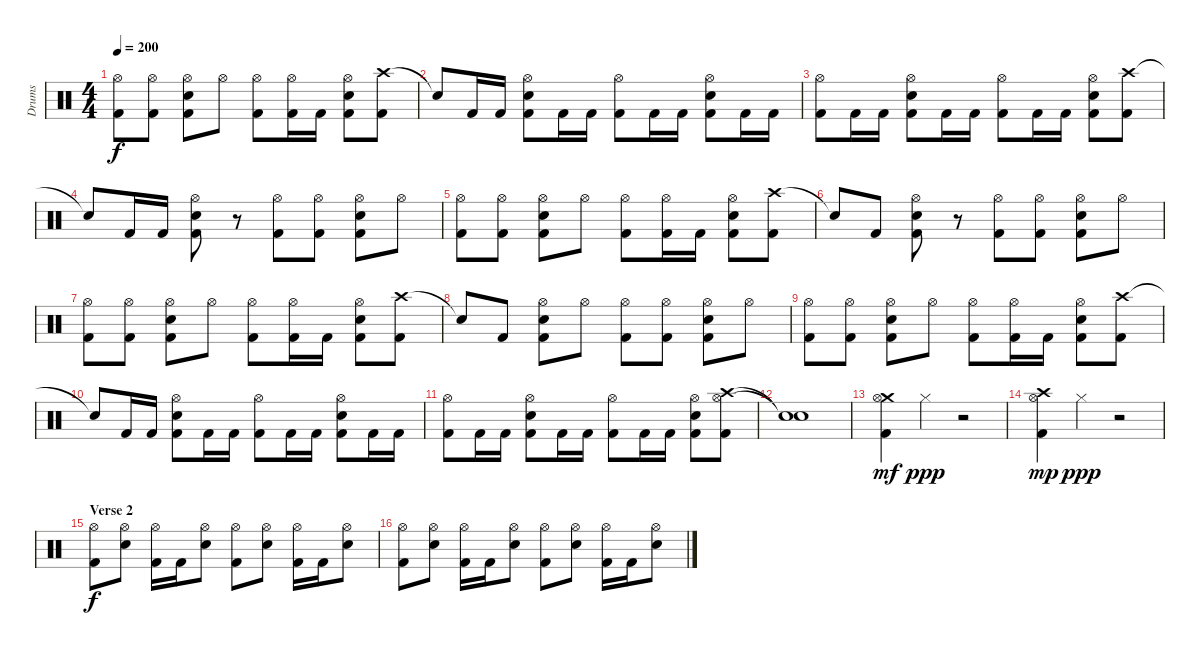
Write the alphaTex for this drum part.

\track ("Drums" "Drums") {instrument percussion}
\staff {score}
\articulation defaults
\ts (4 4)
\tempo 200
\clef neutral
\ks c
("Hi-Hat (open)" "Kick (hit) 2").8{dy f} ("Hi-Hat (open)" "Kick (hit) 2").8 ("Hi-Hat (open)" "Snare (hit) 2" "Kick (hit) 2").8 "Hi-Hat (open)".8 ("Hi-Hat (open)" "Kick (hit) 2").8 ("Hi-Hat (open)" "Kick (hit) 2").16 "Kick (hit) 2".16 ("Hi-Hat (open)" "Snare (hit) 2" "Kick (hit) 2").8 ("Crash high (hit)" "Kick (hit) 2").8 |
"Snare (hit)"{t}.8 "Kick (hit) 2".16 "Kick (hit) 2".16 ("Hi-Hat (open)" "Snare (hit) 2" "Kick (hit) 2").8 "Kick (hit) 2".16 "Kick (hit) 2".16 ("Hi-Hat (open)" "Kick (hit) 2").8 "Kick (hit) 2".16 "Kick (hit) 2".16 ("Hi-Hat (open)" "Snare (hit) 2" "Kick (hit) 2").8 "Kick (hit) 2".16 "Kick (hit) 2".16 |
("Hi-Hat (open)" "Kick (hit) 2").8 "Kick (hit) 2".16 "Kick (hit) 2".16 ("Hi-Hat (open)" "Snare (hit) 2" "Kick (hit) 2").8 "Kick (hit) 2".16 "Kick (hit) 2".16 ("Hi-Hat (open)" "Kick (hit) 2").8 "Kick (hit) 2".16 "Kick (hit) 2".16 ("Hi-Hat (open)" "Snare (hit) 2" "Kick (hit) 2").8 ("Crash high (hit)" "Kick (hit) 2").8 |
"Snare (hit)"{t}.8 "Kick (hit) 2".16 "Kick (hit) 2".16 ("Hi-Hat (open)" "Snare (hit) 2" "Kick (hit) 2").8 r.8 ("Hi-Hat (open)" "Kick (hit) 2").8 ("Hi-Hat (open)" "Kick (hit) 2").8 ("Hi-Hat (open)" "Snare (hit) 2" "Kick (hit) 2").8 "Hi-Hat (open)".8 |
("Hi-Hat (open)" "Kick (hit) 2").8 ("Hi-Hat (open)" "Kick (hit) 2").8 ("Hi-Hat (open)" "Snare (hit) 2" "Kick (hit) 2").8 "Hi-Hat (open)".8 ("Hi-Hat (open)" "Kick (hit) 2").8 ("Hi-Hat (open)" "Kick (hit) 2").16 "Kick (hit) 2".16 ("Hi-Hat (open)" "Snare (hit) 2" "Kick (hit) 2").8 ("Crash high (hit)" "Kick (hit) 2").8 |
"Snare (hit)"{t}.8 "Kick (hit) 2".8 ("Hi-Hat (open)" "Snare (hit) 2" "Kick (hit) 2").8 r.8 ("Hi-Hat (open)" "Kick (hit) 2").8 ("Hi-Hat (open)" "Kick (hit) 2").8 ("Hi-Hat (open)" "Snare (hit) 2" "Kick (hit) 2").8 "Hi-Hat (open)".8 |
("Hi-Hat (open)" "Kick (hit) 2").8 ("Hi-Hat (open)" "Kick (hit) 2").8 ("Hi-Hat (open)" "Snare (hit) 2" "Kick (hit) 2").8 "Hi-Hat (open)".8 ("Hi-Hat (open)" "Kick (hit) 2").8 ("Hi-Hat (open)" "Kick (hit) 2").16 "Kick (hit) 2".16 ("Hi-Hat (open)" "Snare (hit) 2" "Kick (hit) 2").8 ("Crash high (hit)" "Kick (hit) 2").8 |
"Snare (hit)"{t}.8 "Kick (hit) 2".8 ("Hi-Hat (open)" "Snare (hit) 2" "Kick (hit) 2").8 "Hi-Hat (open)".8 ("Hi-Hat (open)" "Kick (hit) 2").8 ("Hi-Hat (open)" "Kick (hit) 2").8 ("Hi-Hat (open)" "Snare (hit) 2" "Kick (hit) 2").8 "Hi-Hat (open)".8 |
("Hi-Hat (open)" "Kick (hit) 2").8 ("Hi-Hat (open)" "Kick (hit) 2").8 ("Hi-Hat (open)" "Snare (hit) 2" "Kick (hit) 2").8 "Hi-Hat (open)".8 ("Hi-Hat (open)" "Kick (hit) 2").8 ("Hi-Hat (open)" "Kick (hit) 2").16 "Kick (hit) 2".16 ("Hi-Hat (open)" "Snare (hit) 2" "Kick (hit) 2").8 ("Crash high (hit)" "Kick (hit) 2").8 |
"Snare (hit)"{t}.8 "Kick (hit) 2".16 "Kick (hit) 2".16 ("Hi-Hat (open)" "Snare (hit) 2" "Kick (hit) 2").8 "Kick (hit) 2".16 "Kick (hit) 2".16 ("Hi-Hat (open)" "Kick (hit) 2").8 "Kick (hit) 2".16 "Kick (hit) 2".16 ("Hi-Hat (open)" "Snare (hit) 2" "Kick (hit) 2").8 "Kick (hit) 2".16 "Kick (hit) 2".16 |
("Hi-Hat (open)" "Kick (hit) 2").8 "Kick (hit) 2".16 "Kick (hit) 2".16 ("Hi-Hat (open)" "Snare (hit) 2" "Kick (hit) 2").8 "Kick (hit) 2".16 "Kick (hit) 2".16 ("Hi-Hat (open)" "Kick (hit) 2").8 "Kick (hit) 2".16 "Kick (hit) 2".16 ("Hi-Hat (open)" "Snare (hit) 2" "Kick (hit) 2").8 ("Crash high (hit)" "Hi-Hat (open)" "Kick (hit) 2").8 |
("Snare (hit)"{t} "Snare (hit)"{t}).1 |
("Crash medium (hit)" "Hi-Hat (open)" "Kick (hit) 2").4{dy mf} "Hi-Hat (closed)".4{dy ppp} r.2 |
("Crash high (hit)" "Hi-Hat (open)" "Kick (hit) 2").4{dy mp} "Hi-Hat (closed)".4{dy ppp} r.2 |
\section ("" "Verse 2")
("Hi-Hat (open)" "Kick (hit) 2").8{dy f} ("Hi-Hat (open)" "Snare (hit) 2").8 ("Hi-Hat (open)" "Kick (hit) 2").16 "Kick (hit) 2".16 ("Hi-Hat (open)" "Snare (hit) 2").8 ("Hi-Hat (open)" "Kick (hit) 2").8 ("Hi-Hat (open)" "Snare (hit) 2").8 ("Hi-Hat (open)" "Kick (hit) 2").16 "Kick (hit) 2".16 ("Hi-Hat (open)" "Snare (hit) 2").8 |
("Hi-Hat (open)" "Kick (hit) 2").8 ("Hi-Hat (open)" "Snare (hit) 2").8 ("Hi-Hat (open)" "Kick (hit) 2").16 "Kick (hit) 2".16 ("Hi-Hat (open)" "Snare (hit) 2").8 ("Hi-Hat (open)" "Kick (hit) 2").8 ("Hi-Hat (open)" "Snare (hit) 2").8 ("Hi-Hat (open)" "Kick (hit) 2").16 "Kick (hit) 2".16 ("Hi-Hat (open)" "Snare (hit) 2").8
